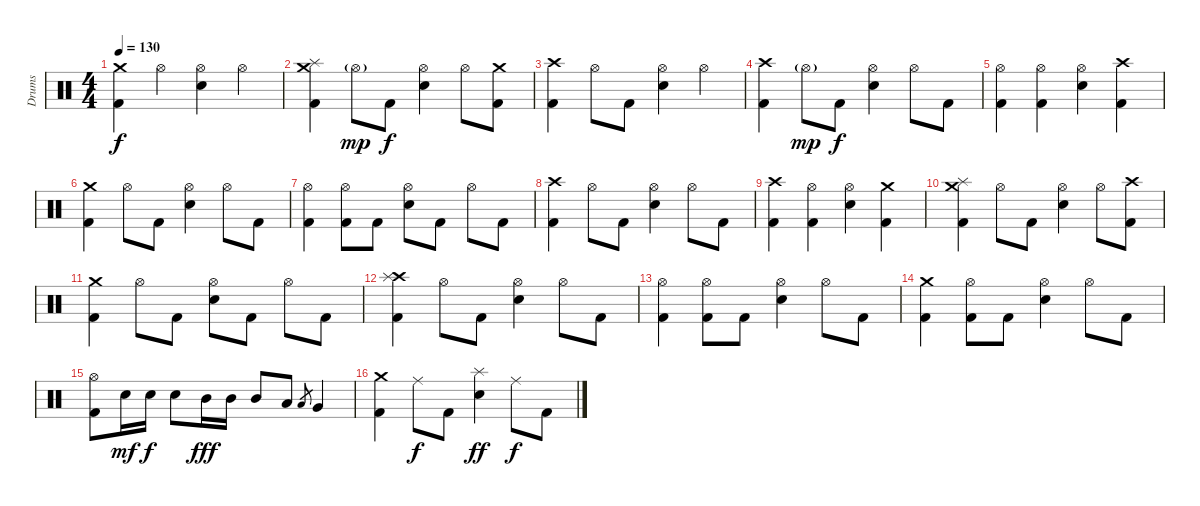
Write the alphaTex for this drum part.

\track ("Drums" "Drums") {instrument percussion}
\staff {score}
\articulation defaults
\ts (4 4)
\tempo 130
\clef neutral
\ks c
("Crash medium (hit)" "Kick (hit) 2").4{dy f} "Hi-Hat (open)".4 ("Hi-Hat (open)" "Snare (hit) 2").4 "Hi-Hat (open)".4 |
("Crash medium (hit)" "Splash (hit)" "Kick (hit) 2").4 "Hi-Hat (open)"{g}.8{dy mp} "Kick (hit) 2".8{dy f} ("Hi-Hat (open)" "Snare (hit) 2").4 "Hi-Hat (open)".8 ("Crash medium (hit)" "Kick (hit) 2").8 |
("Crash high (hit)" "Kick (hit) 2").4 "Hi-Hat (open)".8 "Kick (hit) 2".8 ("Hi-Hat (open)" "Snare (hit) 2").4 "Hi-Hat (open)".4 |
("Crash high (hit)" "Kick (hit) 2").4 "Hi-Hat (open)"{g}.8{dy mp} "Kick (hit) 2".8{dy f} ("Hi-Hat (open)" "Snare (hit) 2").4 "Hi-Hat (open)".8 "Kick (hit) 2".8 |
("Hi-Hat (open)" "Kick (hit) 2").4 ("Hi-Hat (open)" "Kick (hit) 2").4 ("Hi-Hat (open)" "Snare (hit) 2").4 ("Crash high (hit)" "Kick (hit) 2").4 |
("Crash medium (hit)" "Kick (hit) 2").4 "Hi-Hat (open)".8 "Kick (hit) 2".8 ("Hi-Hat (open)" "Snare (hit) 2").4 "Hi-Hat (open)".8 "Kick (hit) 2".8 |
("Hi-Hat (open)" "Kick (hit) 2").4 ("Hi-Hat (open)" "Kick (hit) 2").8 "Kick (hit) 2".8 ("Hi-Hat (open)" "Snare (hit) 2").8 "Kick (hit) 2".8 "Hi-Hat (open)".8 "Kick (hit) 2".8 |
("Crash high (hit)" "Kick (hit) 2").4 "Hi-Hat (open)".8 "Kick (hit) 2".8 ("Hi-Hat (open)" "Snare (hit) 2").4 "Hi-Hat (open)".8 "Kick (hit) 2".8 |
("Crash high (hit)" "Kick (hit) 2").4 ("Hi-Hat (open)" "Kick (hit) 2").4 ("Hi-Hat (open)" "Snare (hit) 2").4 ("Crash medium (hit)" "Kick (hit) 2").4 |
("Crash medium (hit)" "Splash (hit)" "Kick (hit) 2").4 "Hi-Hat (open)".8 "Kick (hit) 2".8 ("Hi-Hat (open)" "Snare (hit) 2").4 "Hi-Hat (open)".8 ("Crash high (hit)" "Kick (hit) 2").8 |
("Crash medium (hit)" "Kick (hit) 2").4 "Hi-Hat (open)".8 "Kick (hit) 2".8 ("Hi-Hat (open)" "Snare (hit) 2").8 "Kick (hit) 2".8 "Hi-Hat (open)".8 "Kick (hit) 2".8 |
("Crash high (hit)" "Splash (hit)" "Kick (hit) 2").4 "Hi-Hat (open)".8 "Kick (hit) 2".8 ("Hi-Hat (open)" "Snare (hit) 2").4 "Hi-Hat (open)".8 "Kick (hit) 2".8 |
("Hi-Hat (open)" "Kick (hit) 2").4 ("Hi-Hat (open)" "Kick (hit) 2").8 "Kick (hit) 2".8 ("Hi-Hat (open)" "Snare (hit) 2").4 "Hi-Hat (open)".8 "Kick (hit) 2".8 |
("Crash medium (hit)" "Kick (hit) 2").4 ("Hi-Hat (open)" "Kick (hit) 2").8 "Kick (hit) 2".8 ("Hi-Hat (open)" "Snare (hit) 2").4 "Hi-Hat (open)".8 "Kick (hit) 2".8 |
("Hi-Hat (open)" "Kick (hit) 2").8 "Snare (hit) 2".16{dy mf} "Snare (hit) 2".16{dy f} "Snare (hit) 2".8 "Mid Tom (hit)".16{dy fff} "Mid Tom (hit)".16 "Mid Tom (hit)".8 "Low Tom (hit)".8 "Low Tom (hit)".8{gr} "Very Low Tom (hit)".4 |
("Crash medium (hit)" "Kick (hit) 2").4 "Ride (middle)".8{dy f} "Kick (hit) 2".8 ("Splash (hit)" "Snare (hit) 2").4{dy ff} "Ride (middle)".8{dy f} "Kick (hit) 2".8
